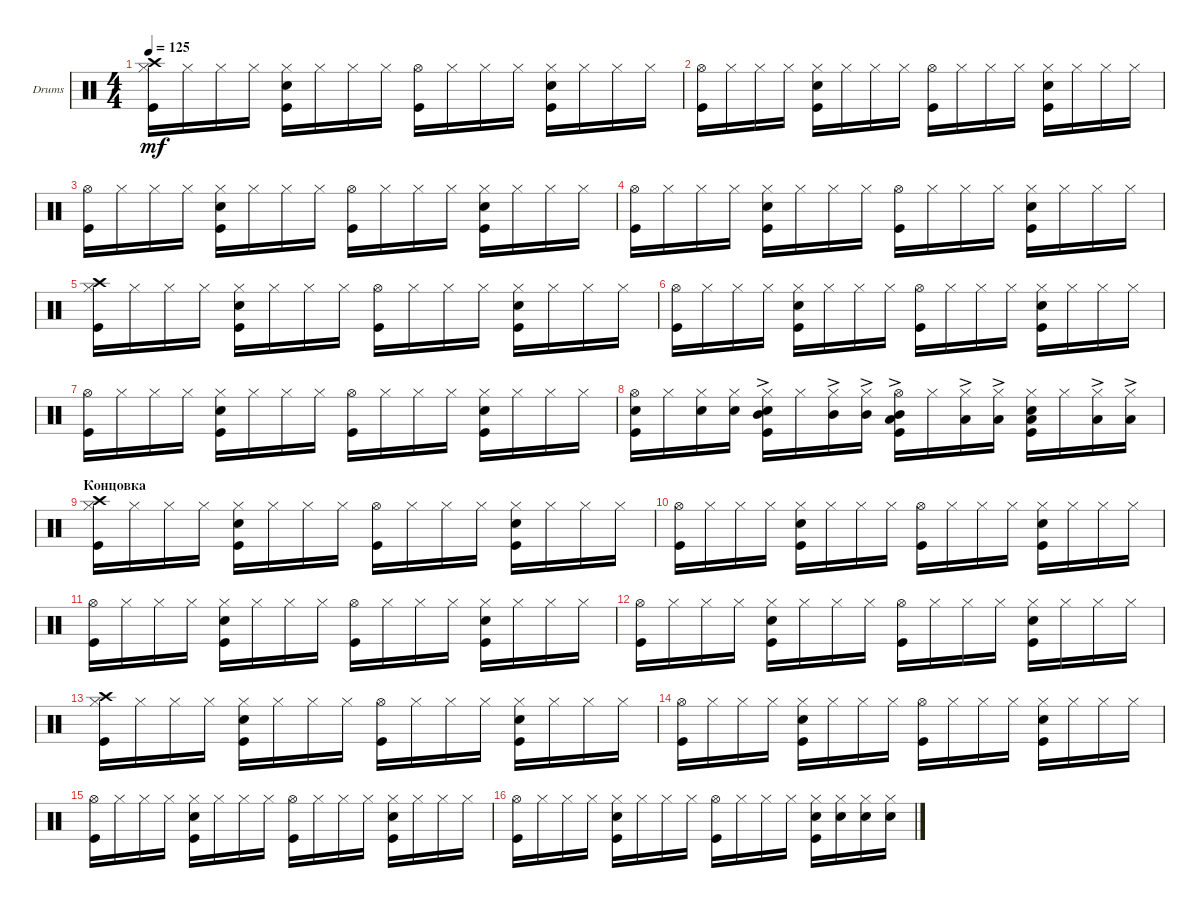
\defaultSystemsLayout 4
\bracketExtendMode groupsimilarinstruments
\firstSystemTrackNameOrientation horizontal
\otherSystemsTrackNameOrientation horizontal
\track ("Drumkit" "Drums") {instrument percussion}
\staff {score}
\articulation defaults
\ts (4 4)
\tempo 125
\clef neutral
\ks c
("Hi-Hat (closed)" "Kick (hit)" "Crash high (hit)").16{dy mf} "Hi-Hat (closed)".16 "Hi-Hat (closed)".16 "Hi-Hat (closed)".16 ("Hi-Hat (closed)" "Kick (hit)" "Snare (hit) 2").16 "Hi-Hat (closed)".16 "Hi-Hat (closed)".16 "Hi-Hat (closed)".16 ("Hi-Hat (open)" "Kick (hit)").16 "Hi-Hat (closed)".16 "Hi-Hat (closed)".16 "Hi-Hat (closed)".16 ("Hi-Hat (closed)" "Kick (hit)" "Snare (hit) 2").16 "Hi-Hat (closed)".16 "Hi-Hat (closed)".16 "Hi-Hat (closed)".16 |
("Hi-Hat (open)" "Kick (hit)").16 "Hi-Hat (closed)".16 "Hi-Hat (closed)".16 "Hi-Hat (closed)".16 ("Hi-Hat (closed)" "Kick (hit)" "Snare (hit) 2").16 "Hi-Hat (closed)".16 "Hi-Hat (closed)".16 "Hi-Hat (closed)".16 ("Hi-Hat (open)" "Kick (hit)").16 "Hi-Hat (closed)".16 "Hi-Hat (closed)".16 "Hi-Hat (closed)".16 ("Hi-Hat (closed)" "Kick (hit)" "Snare (hit) 2").16 "Hi-Hat (closed)".16 "Hi-Hat (closed)".16 "Hi-Hat (closed)".16 |
("Hi-Hat (open)" "Kick (hit)").16 "Hi-Hat (closed)".16 "Hi-Hat (closed)".16 "Hi-Hat (closed)".16 ("Hi-Hat (closed)" "Kick (hit)" "Snare (hit) 2").16 "Hi-Hat (closed)".16 "Hi-Hat (closed)".16 "Hi-Hat (closed)".16 ("Hi-Hat (open)" "Kick (hit)").16 "Hi-Hat (closed)".16 "Hi-Hat (closed)".16 "Hi-Hat (closed)".16 ("Hi-Hat (closed)" "Kick (hit)" "Snare (hit) 2").16 "Hi-Hat (closed)".16 "Hi-Hat (closed)".16 "Hi-Hat (closed)".16 |
("Hi-Hat (open)" "Kick (hit)").16 "Hi-Hat (closed)".16 "Hi-Hat (closed)".16 "Hi-Hat (closed)".16 ("Hi-Hat (closed)" "Kick (hit)" "Snare (hit) 2").16 "Hi-Hat (closed)".16 "Hi-Hat (closed)".16 "Hi-Hat (closed)".16 ("Hi-Hat (open)" "Kick (hit)").16 "Hi-Hat (closed)".16 "Hi-Hat (closed)".16 "Hi-Hat (closed)".16 ("Hi-Hat (closed)" "Kick (hit)" "Snare (hit) 2").16 "Hi-Hat (closed)".16 "Hi-Hat (closed)".16 "Hi-Hat (closed)".16 |
("Hi-Hat (closed)" "Kick (hit)" "Crash high (hit)").16 "Hi-Hat (closed)".16 "Hi-Hat (closed)".16 "Hi-Hat (closed)".16 ("Hi-Hat (closed)" "Kick (hit)" "Snare (hit) 2").16 "Hi-Hat (closed)".16 "Hi-Hat (closed)".16 "Hi-Hat (closed)".16 ("Hi-Hat (open)" "Kick (hit)").16 "Hi-Hat (closed)".16 "Hi-Hat (closed)".16 "Hi-Hat (closed)".16 ("Hi-Hat (closed)" "Kick (hit)" "Snare (hit) 2").16 "Hi-Hat (closed)".16 "Hi-Hat (closed)".16 "Hi-Hat (closed)".16 |
("Hi-Hat (open)" "Kick (hit)").16 "Hi-Hat (closed)".16 "Hi-Hat (closed)".16 "Hi-Hat (closed)".16 ("Hi-Hat (closed)" "Kick (hit)" "Snare (hit) 2").16 "Hi-Hat (closed)".16 "Hi-Hat (closed)".16 "Hi-Hat (closed)".16 ("Hi-Hat (open)" "Kick (hit)").16 "Hi-Hat (closed)".16 "Hi-Hat (closed)".16 "Hi-Hat (closed)".16 ("Hi-Hat (closed)" "Kick (hit)" "Snare (hit) 2").16 "Hi-Hat (closed)".16 "Hi-Hat (closed)".16 "Hi-Hat (closed)".16 |
("Hi-Hat (open)" "Kick (hit)").16 "Hi-Hat (closed)".16 "Hi-Hat (closed)".16 "Hi-Hat (closed)".16 ("Hi-Hat (closed)" "Kick (hit)" "Snare (hit) 2").16 "Hi-Hat (closed)".16 "Hi-Hat (closed)".16 "Hi-Hat (closed)".16 ("Hi-Hat (open)" "Kick (hit)").16 "Hi-Hat (closed)".16 "Hi-Hat (closed)".16 "Hi-Hat (closed)".16 ("Hi-Hat (closed)" "Kick (hit)" "Snare (hit) 2").16 "Hi-Hat (closed)".16 "Hi-Hat (closed)".16 "Hi-Hat (closed)".16 |
("Hi-Hat (open)" "Kick (hit)" "Snare (hit) 2").16 "Hi-Hat (closed)".16 ("Hi-Hat (closed)" "Snare (hit) 2").16 ("Hi-Hat (closed)" "Snare (hit) 2").16 ("Hi-Hat (closed)" "Kick (hit)" "Snare (hit) 2" "Mid Tom (hit)"{ac}).16 "Hi-Hat (closed)".16 ("Hi-Hat (closed)" "Mid Tom (hit)"{ac}).16 ("Hi-Hat (closed)" "Mid Tom (hit)"{ac}).16 ("Hi-Hat (open)" "Kick (hit)" "Mid Tom (hit)" "Low Tom (hit)"{ac}).16 "Hi-Hat (closed)".16 ("Hi-Hat (closed)" "Low Tom (hit)"{ac}).16 ("Hi-Hat (closed)" "Low Tom (hit)"{ac}).16 ("Hi-Hat (closed)" "Kick (hit)" "Snare (hit) 2" "Low Tom (hit)").16 "Hi-Hat (closed)".16 ("Hi-Hat (closed)" "Low Tom (hit)"{ac}).16 ("Hi-Hat (closed)" "Low Tom (hit)"{ac}).16 |
\section ("" "Концовка")
("Hi-Hat (closed)" "Kick (hit)" "Crash high (hit)").16 "Hi-Hat (closed)".16 "Hi-Hat (closed)".16 "Hi-Hat (closed)".16 ("Hi-Hat (closed)" "Kick (hit)" "Snare (hit) 2").16 "Hi-Hat (closed)".16 "Hi-Hat (closed)".16 "Hi-Hat (closed)".16 ("Hi-Hat (open)" "Kick (hit)").16 "Hi-Hat (closed)".16 "Hi-Hat (closed)".16 "Hi-Hat (closed)".16 ("Hi-Hat (closed)" "Kick (hit)" "Snare (hit) 2").16 "Hi-Hat (closed)".16 "Hi-Hat (closed)".16 "Hi-Hat (closed)".16 |
("Hi-Hat (open)" "Kick (hit)").16 "Hi-Hat (closed)".16 "Hi-Hat (closed)".16 "Hi-Hat (closed)".16 ("Hi-Hat (closed)" "Kick (hit)" "Snare (hit) 2").16 "Hi-Hat (closed)".16 "Hi-Hat (closed)".16 "Hi-Hat (closed)".16 ("Hi-Hat (open)" "Kick (hit)").16 "Hi-Hat (closed)".16 "Hi-Hat (closed)".16 "Hi-Hat (closed)".16 ("Hi-Hat (closed)" "Kick (hit)" "Snare (hit) 2").16 "Hi-Hat (closed)".16 "Hi-Hat (closed)".16 "Hi-Hat (closed)".16 |
("Hi-Hat (open)" "Kick (hit)").16 "Hi-Hat (closed)".16 "Hi-Hat (closed)".16 "Hi-Hat (closed)".16 ("Hi-Hat (closed)" "Kick (hit)" "Snare (hit) 2").16 "Hi-Hat (closed)".16 "Hi-Hat (closed)".16 "Hi-Hat (closed)".16 ("Hi-Hat (open)" "Kick (hit)").16 "Hi-Hat (closed)".16 "Hi-Hat (closed)".16 "Hi-Hat (closed)".16 ("Hi-Hat (closed)" "Kick (hit)" "Snare (hit) 2").16 "Hi-Hat (closed)".16 "Hi-Hat (closed)".16 "Hi-Hat (closed)".16 |
("Hi-Hat (open)" "Kick (hit)").16 "Hi-Hat (closed)".16 "Hi-Hat (closed)".16 "Hi-Hat (closed)".16 ("Hi-Hat (closed)" "Kick (hit)" "Snare (hit) 2").16 "Hi-Hat (closed)".16 "Hi-Hat (closed)".16 "Hi-Hat (closed)".16 ("Hi-Hat (open)" "Kick (hit)").16 "Hi-Hat (closed)".16 "Hi-Hat (closed)".16 "Hi-Hat (closed)".16 ("Hi-Hat (closed)" "Kick (hit)" "Snare (hit) 2").16 "Hi-Hat (closed)".16 "Hi-Hat (closed)".16 "Hi-Hat (closed)".16 |
("Hi-Hat (closed)" "Kick (hit)" "Crash high (hit)").16 "Hi-Hat (closed)".16 "Hi-Hat (closed)".16 "Hi-Hat (closed)".16 ("Hi-Hat (closed)" "Kick (hit)" "Snare (hit) 2").16 "Hi-Hat (closed)".16 "Hi-Hat (closed)".16 "Hi-Hat (closed)".16 ("Hi-Hat (open)" "Kick (hit)").16 "Hi-Hat (closed)".16 "Hi-Hat (closed)".16 "Hi-Hat (closed)".16 ("Hi-Hat (closed)" "Kick (hit)" "Snare (hit) 2").16 "Hi-Hat (closed)".16 "Hi-Hat (closed)".16 "Hi-Hat (closed)".16 |
("Hi-Hat (open)" "Kick (hit)").16 "Hi-Hat (closed)".16 "Hi-Hat (closed)".16 "Hi-Hat (closed)".16 ("Hi-Hat (closed)" "Kick (hit)" "Snare (hit) 2").16 "Hi-Hat (closed)".16 "Hi-Hat (closed)".16 "Hi-Hat (closed)".16 ("Hi-Hat (open)" "Kick (hit)").16 "Hi-Hat (closed)".16 "Hi-Hat (closed)".16 "Hi-Hat (closed)".16 ("Hi-Hat (closed)" "Kick (hit)" "Snare (hit) 2").16 "Hi-Hat (closed)".16 "Hi-Hat (closed)".16 "Hi-Hat (closed)".16 |
("Hi-Hat (open)" "Kick (hit)").16 "Hi-Hat (closed)".16 "Hi-Hat (closed)".16 "Hi-Hat (closed)".16 ("Hi-Hat (closed)" "Kick (hit)" "Snare (hit) 2").16 "Hi-Hat (closed)".16 "Hi-Hat (closed)".16 "Hi-Hat (closed)".16 ("Hi-Hat (open)" "Kick (hit)").16 "Hi-Hat (closed)".16 "Hi-Hat (closed)".16 "Hi-Hat (closed)".16 ("Hi-Hat (closed)" "Kick (hit)" "Snare (hit) 2").16 "Hi-Hat (closed)".16 "Hi-Hat (closed)".16 "Hi-Hat (closed)".16 |
("Hi-Hat (open)" "Kick (hit)").16 "Hi-Hat (closed)".16 "Hi-Hat (closed)".16 "Hi-Hat (closed)".16 ("Hi-Hat (closed)" "Kick (hit)" "Snare (hit) 2").16 "Hi-Hat (closed)".16 "Hi-Hat (closed)".16 "Hi-Hat (closed)".16 ("Hi-Hat (open)" "Kick (hit)").16 "Hi-Hat (closed)".16 "Hi-Hat (closed)".16 "Hi-Hat (closed)".16 ("Hi-Hat (closed)" "Kick (hit)" "Snare (hit) 2").16 ("Hi-Hat (closed)" "Snare (hit) 2").16 ("Hi-Hat (closed)" "Snare (hit) 2").16 ("Hi-Hat (closed)" "Snare (hit) 2").16
